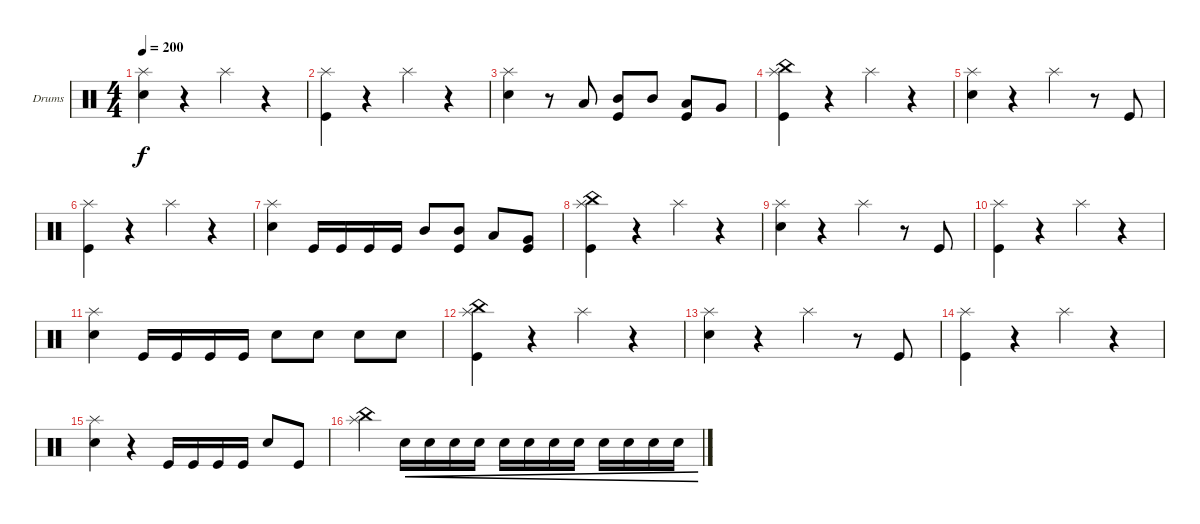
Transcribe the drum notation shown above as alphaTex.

\defaultSystemsLayout 4
\bracketExtendMode groupsimilarinstruments
\firstSystemTrackNameOrientation horizontal
\otherSystemsTrackNameOrientation horizontal
\track ("Drumkit" "Drums") {instrument percussion}
\staff {score}
\articulation defaults
\ts (4 4)
\tempo 200
\clef neutral
\ks c
("Splash (hit)" "Snare (hit) 2").4{dy f} r.4 "Splash (hit)".4 r.4 |
("Splash (hit)" "Kick (hit)").4 r.4 "Splash (hit)".4 r.4 |
("Splash (hit)" "Snare (hit) 2").4 r.8 "Low Tom (hit)".8 ("Mid Tom (hit)" "Kick (hit)").8 "Mid Tom (hit)".8 ("Low Tom (hit)" "Kick (hit)").8 "Very Low Tom (hit)".8 |
("Splash (hit)" "China (hit)" "Kick (hit)").4 r.4 "Splash (hit)".4 r.4 |
("Splash (hit)" "Snare (hit) 2").4 r.4 "Splash (hit)".4 r.8 "Kick (hit)".8 |
("Splash (hit)" "Kick (hit)").4 r.4 "Splash (hit)".4 r.4 |
("Splash (hit)" "Snare (hit) 2").4 "Kick (hit)".16 "Kick (hit)".16 "Kick (hit)".16 "Kick (hit)".16 "Mid Tom (hit)".8 ("Mid Tom (hit)" "Kick (hit)").8 "Low Tom (hit)".8 ("Very Low Tom (hit)" "Kick (hit)").8 |
("Splash (hit)" "China (hit)" "Kick (hit)").4 r.4 "Splash (hit)".4 r.4 |
("Splash (hit)" "Snare (hit) 2").4 r.4 "Splash (hit)".4 r.8 "Kick (hit)".8 |
("Splash (hit)" "Kick (hit)").4 r.4 "Splash (hit)".4 r.4 |
("Splash (hit)" "Snare (hit) 2").4 "Kick (hit)".16 "Kick (hit)".16 "Kick (hit)".16 "Kick (hit)".16 "Snare (hit) 2".8 "Snare (hit) 2".8 "Snare (hit) 2".8 "Snare (hit) 2".8 |
("Splash (hit)" "China (hit)" "Kick (hit)").4 r.4 "Splash (hit)".4 r.4 |
("Splash (hit)" "Snare (hit) 2").4 r.4 "Splash (hit)".4 r.8 "Kick (hit)".8 |
("Splash (hit)" "Kick (hit)").4 r.4 "Splash (hit)".4 r.4 |
("Splash (hit)" "Snare (hit) 2").4 r.4 "Kick (hit)".16 "Kick (hit)".16 "Kick (hit)".16 "Kick (hit)".16 "Snare (hit) 2".8 "Kick (hit)".8 |
("Splash (hit)" "China (hit)").4 "Snare (hit) 2".16{cre} "Snare (hit) 2".16{cre} "Snare (hit) 2".16{cre} "Snare (hit) 2".16{cre} "Snare (hit) 2".16{cre} "Snare (hit) 2".16{cre} "Snare (hit) 2".16{cre} "Snare (hit) 2".16{cre} "Snare (hit) 2".16{cre} "Snare (hit) 2".16{cre} "Snare (hit) 2".16{cre} "Snare (hit) 2".16{cre}
